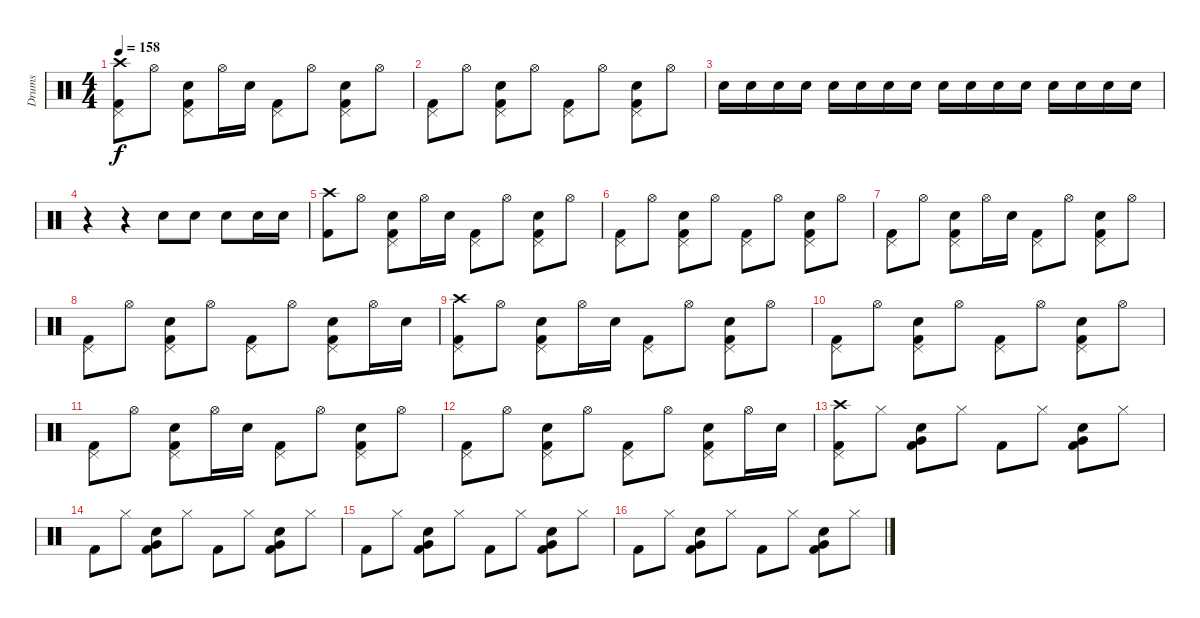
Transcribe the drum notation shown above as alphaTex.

\track ("Drums" "Drums") {instrument percussion}
\staff {score}
\articulation defaults
\ts (4 4)
\tempo 158
\clef neutral
\ks c
("Crash high (hit)" "Pedal Hi-Hat (hit)" "Kick (hit) 2").8{dy f} "Hi-Hat (open)".8 ("Pedal Hi-Hat (hit)" "Electric Snare (hit)" "Kick (hit) 2").8 "Hi-Hat (open)".16 "Electric Snare (hit)".16 ("Pedal Hi-Hat (hit)" "Kick (hit) 2").8 "Hi-Hat (open)".8 ("Pedal Hi-Hat (hit)" "Electric Snare (hit)" "Kick (hit) 2").8 "Hi-Hat (open)".8 |
("Pedal Hi-Hat (hit)" "Kick (hit) 2").8 "Hi-Hat (open)".8 ("Pedal Hi-Hat (hit)" "Electric Snare (hit)" "Kick (hit) 2").8 "Hi-Hat (open)".8 ("Pedal Hi-Hat (hit)" "Kick (hit) 2").8 "Hi-Hat (open)".8 ("Pedal Hi-Hat (hit)" "Electric Snare (hit)" "Kick (hit) 2").8 "Hi-Hat (open)".8 |
"Electric Snare (hit)".16 "Electric Snare (hit)".16 "Electric Snare (hit)".16 "Electric Snare (hit)".16 "Electric Snare (hit)".16 "Electric Snare (hit)".16 "Electric Snare (hit)".16 "Electric Snare (hit)".16 "Electric Snare (hit)".16 "Electric Snare (hit)".16 "Electric Snare (hit)".16 "Electric Snare (hit)".16 "Electric Snare (hit)".16 "Electric Snare (hit)".16 "Electric Snare (hit)".16 "Electric Snare (hit)".16 |
r.4 r.4 "Electric Snare (hit)".8 "Electric Snare (hit)".8 "Electric Snare (hit)".8 "Electric Snare (hit)".16 "Electric Snare (hit)".16 |
("Crash high (hit)" "Kick (hit) 2").8 "Hi-Hat (open)".8 ("Pedal Hi-Hat (hit)" "Electric Snare (hit)" "Kick (hit) 2").8 "Hi-Hat (open)".16 "Electric Snare (hit)".16 ("Pedal Hi-Hat (hit)" "Kick (hit) 2").8 "Hi-Hat (open)".8 ("Pedal Hi-Hat (hit)" "Electric Snare (hit)" "Kick (hit) 2").8 "Hi-Hat (open)".8 |
("Pedal Hi-Hat (hit)" "Kick (hit) 2").8 "Hi-Hat (open)".8 ("Pedal Hi-Hat (hit)" "Electric Snare (hit)" "Kick (hit) 2").8 "Hi-Hat (open)".8 ("Pedal Hi-Hat (hit)" "Kick (hit) 2").8 "Hi-Hat (open)".8 ("Pedal Hi-Hat (hit)" "Electric Snare (hit)" "Kick (hit) 2").8 "Hi-Hat (open)".8 |
("Pedal Hi-Hat (hit)" "Kick (hit) 2").8 "Hi-Hat (open)".8 ("Pedal Hi-Hat (hit)" "Electric Snare (hit)" "Kick (hit) 2").8 "Hi-Hat (open)".16 "Electric Snare (hit)".16 ("Pedal Hi-Hat (hit)" "Kick (hit) 2").8 "Hi-Hat (open)".8 ("Pedal Hi-Hat (hit)" "Electric Snare (hit)" "Kick (hit) 2").8 "Hi-Hat (open)".8 |
("Pedal Hi-Hat (hit)" "Kick (hit) 2").8 "Hi-Hat (open)".8 ("Pedal Hi-Hat (hit)" "Electric Snare (hit)" "Kick (hit) 2").8 "Hi-Hat (open)".8 ("Pedal Hi-Hat (hit)" "Kick (hit) 2").8 "Hi-Hat (open)".8 ("Pedal Hi-Hat (hit)" "Electric Snare (hit)" "Kick (hit) 2").8 "Hi-Hat (open)".16 "Electric Snare (hit)".16 |
("Crash high (hit)" "Pedal Hi-Hat (hit)" "Kick (hit) 2").8 "Hi-Hat (open)".8 ("Pedal Hi-Hat (hit)" "Electric Snare (hit)" "Kick (hit) 2").8 "Hi-Hat (open)".16 "Electric Snare (hit)".16 ("Pedal Hi-Hat (hit)" "Kick (hit) 2").8 "Hi-Hat (open)".8 ("Pedal Hi-Hat (hit)" "Electric Snare (hit)" "Kick (hit) 2").8 "Hi-Hat (open)".8 |
("Pedal Hi-Hat (hit)" "Kick (hit) 2").8 "Hi-Hat (open)".8 ("Pedal Hi-Hat (hit)" "Electric Snare (hit)" "Kick (hit) 2").8 "Hi-Hat (open)".8 ("Pedal Hi-Hat (hit)" "Kick (hit) 2").8 "Hi-Hat (open)".8 ("Pedal Hi-Hat (hit)" "Electric Snare (hit)" "Kick (hit) 2").8 "Hi-Hat (open)".8 |
("Pedal Hi-Hat (hit)" "Kick (hit) 2").8 "Hi-Hat (open)".8 ("Pedal Hi-Hat (hit)" "Electric Snare (hit)" "Kick (hit) 2").8 "Hi-Hat (open)".16 "Electric Snare (hit)".16 ("Pedal Hi-Hat (hit)" "Kick (hit) 2").8 "Hi-Hat (open)".8 ("Pedal Hi-Hat (hit)" "Electric Snare (hit)" "Kick (hit) 2").8 "Hi-Hat (open)".8 |
("Pedal Hi-Hat (hit)" "Kick (hit) 2").8 "Hi-Hat (open)".8 ("Pedal Hi-Hat (hit)" "Electric Snare (hit)" "Kick (hit) 2").8 "Hi-Hat (open)".8 ("Pedal Hi-Hat (hit)" "Kick (hit) 2").8 "Hi-Hat (open)".8 ("Pedal Hi-Hat (hit)" "Electric Snare (hit)" "Kick (hit) 2").8 "Hi-Hat (open)".16 "Electric Snare (hit)".16 |
("Crash high (hit)" "Pedal Hi-Hat (hit)" "Kick (hit) 2").8 "Hi-Hat (closed)".8 ("Electric Snare (hit)" "Very Low Tom (hit)" "Kick (hit) 2").8 "Hi-Hat (closed)".8 "Kick (hit) 2".8 "Hi-Hat (closed)".8 ("Electric Snare (hit)" "Very Low Tom (hit)" "Kick (hit) 2").8 "Hi-Hat (closed)".8 |
"Kick (hit) 2".8 "Hi-Hat (closed)".8 ("Electric Snare (hit)" "Very Low Tom (hit)" "Kick (hit) 2").8 "Hi-Hat (closed)".8 "Kick (hit) 2".8 "Hi-Hat (closed)".8 ("Electric Snare (hit)" "Very Low Tom (hit)" "Kick (hit) 2").8 "Hi-Hat (closed)".8 |
"Kick (hit) 2".8 "Hi-Hat (closed)".8 ("Electric Snare (hit)" "Very Low Tom (hit)" "Kick (hit) 2").8 "Hi-Hat (closed)".8 "Kick (hit) 2".8 "Hi-Hat (closed)".8 ("Electric Snare (hit)" "Very Low Tom (hit)" "Kick (hit) 2").8 "Hi-Hat (closed)".8 |
"Kick (hit) 2".8 "Hi-Hat (closed)".8 ("Electric Snare (hit)" "Very Low Tom (hit)" "Kick (hit) 2").8 "Hi-Hat (closed)".8 "Kick (hit) 2".8 "Hi-Hat (closed)".8 ("Electric Snare (hit)" "Very Low Tom (hit)" "Kick (hit) 2").8 "Hi-Hat (closed)".8
